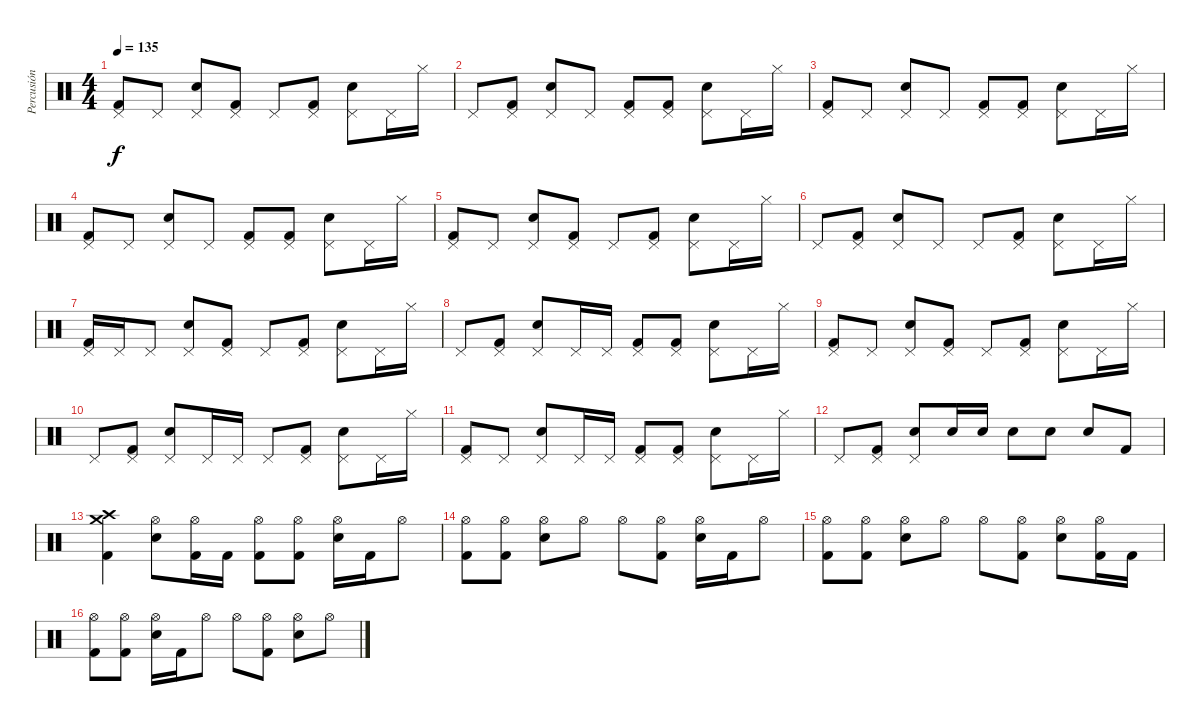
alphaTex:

\track ("Percusión" "Percusión") {instrument percussion}
\staff {score}
\articulation defaults
\ts (4 4)
\tempo 135
\clef neutral
\ks c
("Pedal Hi-Hat (hit)" "Kick (hit) 2").8{dy f} "Pedal Hi-Hat (hit)".8 ("Pedal Hi-Hat (hit)" "Electric Snare (hit)").8 ("Pedal Hi-Hat (hit)" "Kick (hit) 2").8 "Pedal Hi-Hat (hit)".8 ("Pedal Hi-Hat (hit)" "Kick (hit) 2").8 ("Pedal Hi-Hat (hit)" "Electric Snare (hit)").8 "Pedal Hi-Hat (hit)".16 "Hi-Hat (closed)".16 |
"Pedal Hi-Hat (hit)".8 ("Pedal Hi-Hat (hit)" "Kick (hit) 2").8 ("Pedal Hi-Hat (hit)" "Electric Snare (hit)").8 "Pedal Hi-Hat (hit)".8 ("Pedal Hi-Hat (hit)" "Kick (hit) 2").8 ("Pedal Hi-Hat (hit)" "Kick (hit) 2").8 ("Pedal Hi-Hat (hit)" "Electric Snare (hit)").8 "Pedal Hi-Hat (hit)".16 "Hi-Hat (closed)".16 |
("Pedal Hi-Hat (hit)" "Kick (hit) 2").8 "Pedal Hi-Hat (hit)".8 ("Pedal Hi-Hat (hit)" "Electric Snare (hit)").8 "Pedal Hi-Hat (hit)".8 ("Pedal Hi-Hat (hit)" "Kick (hit) 2").8 ("Pedal Hi-Hat (hit)" "Kick (hit) 2").8 ("Pedal Hi-Hat (hit)" "Electric Snare (hit)").8 "Pedal Hi-Hat (hit)".16 "Hi-Hat (closed)".16 |
("Pedal Hi-Hat (hit)" "Kick (hit) 2").8 "Pedal Hi-Hat (hit)".8 ("Pedal Hi-Hat (hit)" "Electric Snare (hit)").8 "Pedal Hi-Hat (hit)".8 ("Pedal Hi-Hat (hit)" "Kick (hit) 2").8 ("Pedal Hi-Hat (hit)" "Kick (hit) 2").8 ("Pedal Hi-Hat (hit)" "Electric Snare (hit)").8 "Pedal Hi-Hat (hit)".16 "Hi-Hat (closed)".16 |
("Pedal Hi-Hat (hit)" "Kick (hit) 2").8 "Pedal Hi-Hat (hit)".8 ("Pedal Hi-Hat (hit)" "Electric Snare (hit)").8 ("Pedal Hi-Hat (hit)" "Kick (hit) 2").8 "Pedal Hi-Hat (hit)".8 ("Pedal Hi-Hat (hit)" "Kick (hit) 2").8 ("Pedal Hi-Hat (hit)" "Electric Snare (hit)").8 "Pedal Hi-Hat (hit)".16 "Hi-Hat (closed)".16 |
"Pedal Hi-Hat (hit)".8 ("Pedal Hi-Hat (hit)" "Kick (hit) 2").8 ("Pedal Hi-Hat (hit)" "Electric Snare (hit)").8 "Pedal Hi-Hat (hit)".8 "Pedal Hi-Hat (hit)".8 ("Pedal Hi-Hat (hit)" "Kick (hit) 2").8 ("Pedal Hi-Hat (hit)" "Electric Snare (hit)").8 "Pedal Hi-Hat (hit)".16 "Hi-Hat (closed)".16 |
("Pedal Hi-Hat (hit)" "Kick (hit) 2").16 "Pedal Hi-Hat (hit)".16 "Pedal Hi-Hat (hit)".8 ("Pedal Hi-Hat (hit)" "Electric Snare (hit)").8 ("Pedal Hi-Hat (hit)" "Kick (hit) 2").8 "Pedal Hi-Hat (hit)".8 ("Pedal Hi-Hat (hit)" "Kick (hit) 2").8 ("Pedal Hi-Hat (hit)" "Electric Snare (hit)").8 "Pedal Hi-Hat (hit)".16 "Hi-Hat (closed)".16 |
"Pedal Hi-Hat (hit)".8 ("Pedal Hi-Hat (hit)" "Kick (hit) 2").8 ("Pedal Hi-Hat (hit)" "Electric Snare (hit)").8 "Pedal Hi-Hat (hit)".16 "Pedal Hi-Hat (hit)".16 ("Pedal Hi-Hat (hit)" "Kick (hit) 2").8 ("Pedal Hi-Hat (hit)" "Kick (hit) 2").8 ("Pedal Hi-Hat (hit)" "Electric Snare (hit)").8 "Pedal Hi-Hat (hit)".16 "Hi-Hat (closed)".16 |
("Pedal Hi-Hat (hit)" "Kick (hit) 2").8 "Pedal Hi-Hat (hit)".8 ("Pedal Hi-Hat (hit)" "Electric Snare (hit)").8 ("Pedal Hi-Hat (hit)" "Kick (hit) 2").8 "Pedal Hi-Hat (hit)".8 ("Pedal Hi-Hat (hit)" "Kick (hit) 2").8 ("Pedal Hi-Hat (hit)" "Electric Snare (hit)").8 "Pedal Hi-Hat (hit)".16 "Hi-Hat (closed)".16 |
"Pedal Hi-Hat (hit)".8 ("Pedal Hi-Hat (hit)" "Kick (hit) 2").8 ("Pedal Hi-Hat (hit)" "Electric Snare (hit)").8 "Pedal Hi-Hat (hit)".16 "Pedal Hi-Hat (hit)".16 "Pedal Hi-Hat (hit)".8 ("Pedal Hi-Hat (hit)" "Kick (hit) 2").8 ("Pedal Hi-Hat (hit)" "Electric Snare (hit)").8 "Pedal Hi-Hat (hit)".16 "Hi-Hat (closed)".16 |
("Pedal Hi-Hat (hit)" "Kick (hit) 2").8 "Pedal Hi-Hat (hit)".8 ("Pedal Hi-Hat (hit)" "Electric Snare (hit)").8 "Pedal Hi-Hat (hit)".16 "Pedal Hi-Hat (hit)".16 ("Pedal Hi-Hat (hit)" "Kick (hit) 2").8 ("Pedal Hi-Hat (hit)" "Kick (hit) 2").8 ("Pedal Hi-Hat (hit)" "Electric Snare (hit)").8 "Pedal Hi-Hat (hit)".16 "Hi-Hat (closed)".16 |
"Pedal Hi-Hat (hit)".8 ("Pedal Hi-Hat (hit)" "Kick (hit) 2").8 ("Pedal Hi-Hat (hit)" "Electric Snare (hit)").8 "Electric Snare (hit)".16 "Electric Snare (hit)".16 "Electric Snare (hit)".8 "Electric Snare (hit)".8 "Electric Snare (hit)".8 "Kick (hit) 2".8 |
("Crash medium (hit)" "Crash high (hit)" "Kick (hit) 2").4 ("Hi-Hat (open)" "Electric Snare (hit)").8 ("Hi-Hat (open)" "Kick (hit) 2").16 "Kick (hit) 2".16 ("Hi-Hat (open)" "Kick (hit) 2").8 ("Hi-Hat (open)" "Kick (hit) 2").8 ("Hi-Hat (open)" "Electric Snare (hit)").16 "Kick (hit) 2".16 "Hi-Hat (open)".8 |
("Hi-Hat (open)" "Kick (hit) 2").8 ("Hi-Hat (open)" "Kick (hit) 2").8 ("Hi-Hat (open)" "Electric Snare (hit)").8 "Hi-Hat (open)".8 "Hi-Hat (open)".8 ("Hi-Hat (open)" "Kick (hit) 2").8 ("Hi-Hat (open)" "Electric Snare (hit)").16 "Kick (hit) 2".16 "Hi-Hat (open)".8 |
("Hi-Hat (open)" "Kick (hit) 2").8 ("Hi-Hat (open)" "Kick (hit) 2").8 ("Hi-Hat (open)" "Electric Snare (hit)").8 "Hi-Hat (open)".8 "Hi-Hat (open)".8 ("Hi-Hat (open)" "Kick (hit) 2").8 ("Hi-Hat (open)" "Electric Snare (hit)").8 ("Hi-Hat (open)" "Kick (hit) 2").16 "Kick (hit) 2".16 |
("Hi-Hat (open)" "Kick (hit) 2").8 ("Hi-Hat (open)" "Kick (hit) 2").8 ("Hi-Hat (open)" "Electric Snare (hit)").16 "Kick (hit) 2".16 "Hi-Hat (open)".8 "Hi-Hat (open)".8 ("Hi-Hat (open)" "Kick (hit) 2").8 ("Hi-Hat (open)" "Electric Snare (hit)").8 "Hi-Hat (open)".8
